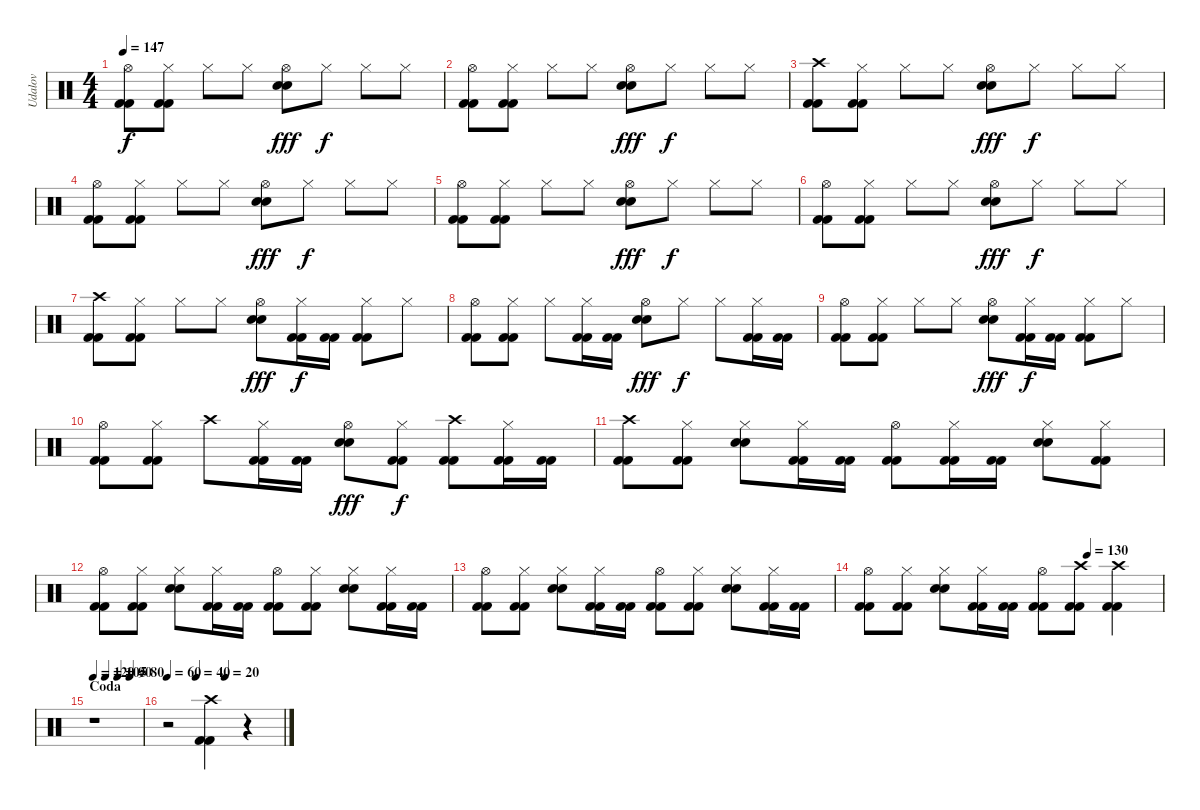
\track ("Udalov" "Udalov") {instrument percussion}
\staff {score}
\articulation defaults
\ts (4 4)
\tempo 147
\clef neutral
\ks c
("Hi-Hat (open)" "Kick (hit) 2" "Kick (hit) 2").8{dy f} ("Hi-Hat (closed)" "Kick (hit) 2" "Kick (hit) 2").8 "Hi-Hat (closed)".8 "Hi-Hat (closed)".8 ("Hi-Hat (open)" "Electric Snare (hit)" "Electric Snare (hit)").8{dy fff} "Hi-Hat (closed)".8{dy f} "Hi-Hat (closed)".8 "Hi-Hat (closed)".8 |
("Hi-Hat (open)" "Kick (hit) 2" "Kick (hit) 2").8 ("Hi-Hat (closed)" "Kick (hit) 2" "Kick (hit) 2").8 "Hi-Hat (closed)".8 "Hi-Hat (closed)".8 ("Hi-Hat (open)" "Electric Snare (hit)" "Electric Snare (hit)").8{dy fff} "Hi-Hat (closed)".8{dy f} "Hi-Hat (closed)".8 "Hi-Hat (closed)".8 |
("Crash high (hit)" "Kick (hit) 2" "Kick (hit) 2").8 ("Hi-Hat (closed)" "Kick (hit) 2" "Kick (hit) 2").8 "Hi-Hat (closed)".8 "Hi-Hat (closed)".8 ("Hi-Hat (open)" "Electric Snare (hit)" "Electric Snare (hit)").8{dy fff} "Hi-Hat (closed)".8{dy f} "Hi-Hat (closed)".8 "Hi-Hat (closed)".8 |
("Hi-Hat (open)" "Kick (hit) 2" "Kick (hit) 2").8 ("Hi-Hat (closed)" "Kick (hit) 2" "Kick (hit) 2").8 "Hi-Hat (closed)".8 "Hi-Hat (closed)".8 ("Hi-Hat (open)" "Electric Snare (hit)" "Electric Snare (hit)").8{dy fff} "Hi-Hat (closed)".8{dy f} "Hi-Hat (closed)".8 "Hi-Hat (closed)".8 |
("Hi-Hat (open)" "Kick (hit) 2" "Kick (hit) 2").8 ("Hi-Hat (closed)" "Kick (hit) 2" "Kick (hit) 2").8 "Hi-Hat (closed)".8 "Hi-Hat (closed)".8 ("Hi-Hat (open)" "Electric Snare (hit)" "Electric Snare (hit)").8{dy fff} "Hi-Hat (closed)".8{dy f} "Hi-Hat (closed)".8 "Hi-Hat (closed)".8 |
("Hi-Hat (open)" "Kick (hit) 2" "Kick (hit) 2").8 ("Hi-Hat (closed)" "Kick (hit) 2" "Kick (hit) 2").8 "Hi-Hat (closed)".8 "Hi-Hat (closed)".8 ("Hi-Hat (open)" "Electric Snare (hit)" "Electric Snare (hit)").8{dy fff} "Hi-Hat (closed)".8{dy f} "Hi-Hat (closed)".8 "Hi-Hat (closed)".8 |
("Crash high (hit)" "Kick (hit) 2" "Kick (hit) 2").8 ("Hi-Hat (closed)" "Kick (hit) 2" "Kick (hit) 2").8 "Hi-Hat (closed)".8 "Hi-Hat (closed)".8 ("Hi-Hat (open)" "Electric Snare (hit)" "Electric Snare (hit)").8{dy fff} ("Hi-Hat (closed)" "Kick (hit) 2" "Kick (hit) 2").16{dy f} ("Kick (hit) 2" "Kick (hit) 2").16 ("Hi-Hat (closed)" "Kick (hit) 2" "Kick (hit) 2").8 "Hi-Hat (closed)".8 |
("Hi-Hat (open)" "Kick (hit) 2" "Kick (hit) 2").8 ("Hi-Hat (closed)" "Kick (hit) 2" "Kick (hit) 2").8 "Hi-Hat (closed)".8 ("Hi-Hat (closed)" "Kick (hit) 2" "Kick (hit) 2").16 ("Kick (hit) 2" "Kick (hit) 2").16 ("Hi-Hat (open)" "Electric Snare (hit)" "Electric Snare (hit)").8{dy fff} "Hi-Hat (closed)".8{dy f} "Hi-Hat (closed)".8 ("Hi-Hat (closed)" "Kick (hit) 2" "Kick (hit) 2").16 ("Kick (hit) 2" "Kick (hit) 2").16 |
("Hi-Hat (open)" "Kick (hit) 2" "Kick (hit) 2").8 ("Hi-Hat (closed)" "Kick (hit) 2" "Kick (hit) 2").8 "Hi-Hat (closed)".8 "Hi-Hat (closed)".8 ("Hi-Hat (open)" "Electric Snare (hit)" "Electric Snare (hit)").8{dy fff} ("Hi-Hat (closed)" "Kick (hit) 2" "Kick (hit) 2").16{dy f} ("Kick (hit) 2" "Kick (hit) 2").16 ("Hi-Hat (closed)" "Kick (hit) 2" "Kick (hit) 2").8 "Hi-Hat (closed)".8 |
("Hi-Hat (open)" "Kick (hit) 2" "Kick (hit) 2").8 ("Hi-Hat (closed)" "Kick (hit) 2" "Kick (hit) 2").8 "Crash high (hit)".8 ("Hi-Hat (closed)" "Kick (hit) 2" "Kick (hit) 2").16 ("Kick (hit) 2" "Kick (hit) 2").16 ("Hi-Hat (open)" "Electric Snare (hit)" "Electric Snare (hit)").8{dy fff} ("Hi-Hat (closed)" "Kick (hit) 2" "Kick (hit) 2").8{dy f} ("Crash high (hit)" "Kick (hit) 2" "Kick (hit) 2").8 ("Hi-Hat (closed)" "Kick (hit) 2" "Kick (hit) 2").16 ("Kick (hit) 2" "Kick (hit) 2").16 |
("Crash high (hit)" "Kick (hit) 2" "Kick (hit) 2").8 ("Hi-Hat (closed)" "Kick (hit) 2" "Kick (hit) 2").8 ("Hi-Hat (closed)" "Electric Snare (hit)" "Electric Snare (hit)").8 ("Hi-Hat (closed)" "Kick (hit) 2" "Kick (hit) 2").16 ("Kick (hit) 2" "Kick (hit) 2").16 ("Hi-Hat (open)" "Kick (hit) 2" "Kick (hit) 2").8 ("Hi-Hat (closed)" "Kick (hit) 2" "Kick (hit) 2").16 ("Kick (hit) 2" "Kick (hit) 2").16 ("Hi-Hat (closed)" "Electric Snare (hit)" "Electric Snare (hit)").8 ("Hi-Hat (closed)" "Kick (hit) 2" "Kick (hit) 2").8 |
("Hi-Hat (open)" "Kick (hit) 2" "Kick (hit) 2").8 ("Hi-Hat (closed)" "Kick (hit) 2" "Kick (hit) 2").8 ("Hi-Hat (closed)" "Electric Snare (hit)" "Electric Snare (hit)").8 ("Hi-Hat (closed)" "Kick (hit) 2" "Kick (hit) 2").16 ("Kick (hit) 2" "Kick (hit) 2").16 ("Hi-Hat (open)" "Kick (hit) 2" "Kick (hit) 2").8 ("Hi-Hat (closed)" "Kick (hit) 2" "Kick (hit) 2").8 ("Hi-Hat (closed)" "Electric Snare (hit)" "Electric Snare (hit)").8 ("Hi-Hat (closed)" "Kick (hit) 2" "Kick (hit) 2").16 ("Kick (hit) 2" "Kick (hit) 2").16 |
("Hi-Hat (open)" "Kick (hit) 2" "Kick (hit) 2").8 ("Hi-Hat (closed)" "Kick (hit) 2" "Kick (hit) 2").8 ("Hi-Hat (closed)" "Electric Snare (hit)" "Electric Snare (hit)").8 ("Hi-Hat (closed)" "Kick (hit) 2" "Kick (hit) 2").16 ("Kick (hit) 2" "Kick (hit) 2").16 ("Hi-Hat (open)" "Kick (hit) 2" "Kick (hit) 2").8 ("Hi-Hat (closed)" "Kick (hit) 2" "Kick (hit) 2").8 ("Hi-Hat (closed)" "Electric Snare (hit)" "Electric Snare (hit)").8 ("Hi-Hat (closed)" "Kick (hit) 2" "Kick (hit) 2").16 ("Kick (hit) 2" "Kick (hit) 2").16 |
\tempo (130 0.75)
("Hi-Hat (open)" "Kick (hit) 2" "Kick (hit) 2").8 ("Hi-Hat (closed)" "Kick (hit) 2" "Kick (hit) 2").8 ("Hi-Hat (closed)" "Electric Snare (hit)" "Electric Snare (hit)").8 ("Hi-Hat (closed)" "Kick (hit) 2" "Kick (hit) 2").16 ("Kick (hit) 2" "Kick (hit) 2").16 ("Hi-Hat (open)" "Kick (hit) 2" "Kick (hit) 2").8 ("Crash high (hit)" "Kick (hit) 2" "Kick (hit) 2").8 ("Crash high (hit)" "Kick (hit) 2" "Kick (hit) 2").4 |
\section ("" "Coda")
\tempo 120
\tempo (105 0.25)
\tempo (90 0.5)
\tempo (80 0.75)
r.1 |
\tempo 60
\tempo (40 0.25)
\tempo (20 0.5)
r.2 ("Crash high (hit)" "Kick (hit) 2" "Kick (hit) 2").4 r.4
